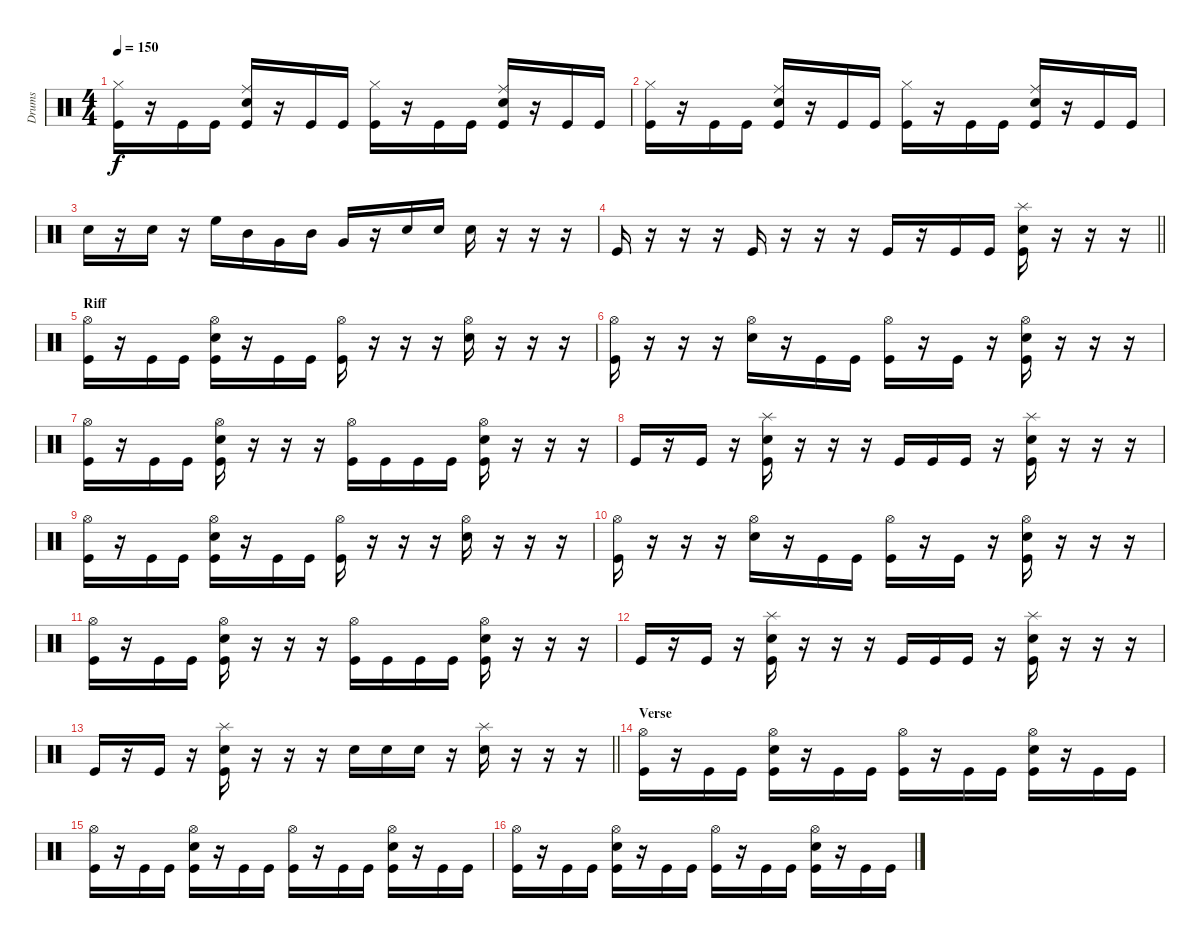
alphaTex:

\track ("Drums" "Drums") {instrument percussion}
\staff
\articulation defaults
\ts (4 4)
\tempo 150
\clef neutral
\ks c
("Hi-Hat (closed)" "Kick (hit)").16{dy f} r.16 "Kick (hit)".16 "Kick (hit)".16 ("Ride (middle)" "Snare (hit) 2" "Kick (hit)").16 r.16 "Kick (hit)".16 "Kick (hit)".16 ("Hi-Hat (closed)" "Kick (hit)").16 r.16 "Kick (hit)".16 "Kick (hit)".16 ("Ride (middle)" "Snare (hit) 2" "Kick (hit)").16 r.16 "Kick (hit)".16 "Kick (hit)".16 |
("Hi-Hat (closed)" "Kick (hit)").16 r.16 "Kick (hit)".16 "Kick (hit)".16 ("Ride (middle)" "Snare (hit) 2" "Kick (hit)").16 r.16 "Kick (hit)".16 "Kick (hit)".16 ("Hi-Hat (closed)" "Kick (hit)").16 r.16 "Kick (hit)".16 "Kick (hit)".16 ("Ride (middle)" "Snare (hit) 2" "Kick (hit)").16 r.16 "Kick (hit)".16 "Kick (hit)".16 |
"Snare (hit) 2".16 r.16 "Snare (hit) 2".16 r.16 "High Floor Tom (hit)".16 "Mid Tom (hit)".16 "Very Low Tom (hit)".16 "Mid Tom (hit)".16 "Very Low Tom (hit)".16 r.16 "Snare (hit) 2".16 "Snare (hit) 2".16 "Snare (hit) 2".16 r.16 r.16 r.16 |
\barLineRight lightlight "Kick (hit)".16
r.16 r.16 r.16 "Kick (hit)".16 r.16 r.16 r.16 "Kick (hit)".16 r.16 "Kick (hit)".16 "Kick (hit)".16 ("Splash (hit)" "Snare (hit) 2" "Kick (hit)").16 r.16 r.16 r.16 |
\section ("" "Riff")
("Hi-Hat (open)" "Kick (hit)").16 r.16 "Kick (hit)".16 "Kick (hit)".16 ("Hi-Hat (open)" "Snare (hit) 2" "Kick (hit)").16 r.16 "Kick (hit)".16 "Kick (hit)".16 ("Hi-Hat (open)" "Kick (hit)").16 r.16 r.16 r.16 ("Hi-Hat (open)" "Snare (hit) 2").16 r.16 r.16 r.16 |
("Hi-Hat (open)" "Kick (hit)").16 r.16 r.16 r.16 ("Hi-Hat (open)" "Snare (hit) 2").16 r.16 "Kick (hit)".16 "Kick (hit)".16 ("Hi-Hat (open)" "Kick (hit)").16 r.16 "Kick (hit)".16 r.16 ("Hi-Hat (open)" "Snare (hit) 2" "Kick (hit)").16 r.16 r.16 r.16 |
("Hi-Hat (open)" "Kick (hit)").16 r.16 "Kick (hit)".16 "Kick (hit)".16 ("Hi-Hat (open)" "Snare (hit) 2" "Kick (hit)").16 r.16 r.16 r.16 ("Hi-Hat (open)" "Kick (hit)").16 "Kick (hit)".16 "Kick (hit)".16 "Kick (hit)".16 ("Hi-Hat (open)" "Snare (hit) 2" "Kick (hit)").16 r.16 r.16 r.16 |
"Kick (hit)".16 r.16 "Kick (hit)".16 r.16 ("Splash (hit)" "Snare (hit) 2" "Kick (hit)").16 r.16 r.16 r.16 "Kick (hit)".16 "Kick (hit)".16 "Kick (hit)".16 r.16 ("Splash (hit)" "Snare (hit) 2" "Kick (hit)").16 r.16 r.16 r.16 |
("Hi-Hat (open)" "Kick (hit)").16 r.16 "Kick (hit)".16 "Kick (hit)".16 ("Hi-Hat (open)" "Snare (hit) 2" "Kick (hit)").16 r.16 "Kick (hit)".16 "Kick (hit)".16 ("Hi-Hat (open)" "Kick (hit)").16 r.16 r.16 r.16 ("Hi-Hat (open)" "Snare (hit) 2").16 r.16 r.16 r.16 |
("Hi-Hat (open)" "Kick (hit)").16 r.16 r.16 r.16 ("Hi-Hat (open)" "Snare (hit) 2").16 r.16 "Kick (hit)".16 "Kick (hit)".16 ("Hi-Hat (open)" "Kick (hit)").16 r.16 "Kick (hit)".16 r.16 ("Hi-Hat (open)" "Snare (hit) 2" "Kick (hit)").16 r.16 r.16 r.16 |
("Hi-Hat (open)" "Kick (hit)").16 r.16 "Kick (hit)".16 "Kick (hit)".16 ("Hi-Hat (open)" "Snare (hit) 2" "Kick (hit)").16 r.16 r.16 r.16 ("Hi-Hat (open)" "Kick (hit)").16 "Kick (hit)".16 "Kick (hit)".16 "Kick (hit)".16 ("Hi-Hat (open)" "Snare (hit) 2" "Kick (hit)").16 r.16 r.16 r.16 |
"Kick (hit)".16 r.16 "Kick (hit)".16 r.16 ("Splash (hit)" "Snare (hit) 2" "Kick (hit)").16 r.16 r.16 r.16 "Kick (hit)".16 "Kick (hit)".16 "Kick (hit)".16 r.16 ("Splash (hit)" "Snare (hit) 2" "Kick (hit)").16 r.16 r.16 r.16 |
\barLineRight lightlight "Kick (hit)".16
r.16 "Kick (hit)".16 r.16 ("Splash (hit)" "Snare (hit) 2" "Kick (hit)").16 r.16 r.16 r.16 "Snare (hit) 2".16 "Snare (hit) 2".16 "Snare (hit) 2".16 r.16 ("Splash (hit)" "Snare (hit) 2").16 r.16 r.16 r.16 |
\section ("" "Verse")
("Hi-Hat (open)" "Kick (hit)").16 r.16 "Kick (hit)".16 "Kick (hit)".16 ("Hi-Hat (open)" "Snare (hit) 2" "Kick (hit)").16 r.16 "Kick (hit)".16 "Kick (hit)".16 ("Hi-Hat (open)" "Kick (hit)").16 r.16 "Kick (hit)".16 "Kick (hit)".16 ("Hi-Hat (open)" "Snare (hit) 2" "Kick (hit)").16 r.16 "Kick (hit)".16 "Kick (hit)".16 |
("Hi-Hat (open)" "Kick (hit)").16 r.16 "Kick (hit)".16 "Kick (hit)".16 ("Hi-Hat (open)" "Snare (hit) 2" "Kick (hit)").16 r.16 "Kick (hit)".16 "Kick (hit)".16 ("Hi-Hat (open)" "Kick (hit)").16 r.16 "Kick (hit)".16 "Kick (hit)".16 ("Hi-Hat (open)" "Snare (hit) 2" "Kick (hit)").16 r.16 "Kick (hit)".16 "Kick (hit)".16 |
("Hi-Hat (open)" "Kick (hit)").16 r.16 "Kick (hit)".16 "Kick (hit)".16 ("Hi-Hat (open)" "Snare (hit) 2" "Kick (hit)").16 r.16 "Kick (hit)".16 "Kick (hit)".16 ("Hi-Hat (open)" "Kick (hit)").16 r.16 "Kick (hit)".16 "Kick (hit)".16 ("Hi-Hat (open)" "Snare (hit) 2" "Kick (hit)").16 r.16 "Kick (hit)".16 "Kick (hit)".16
